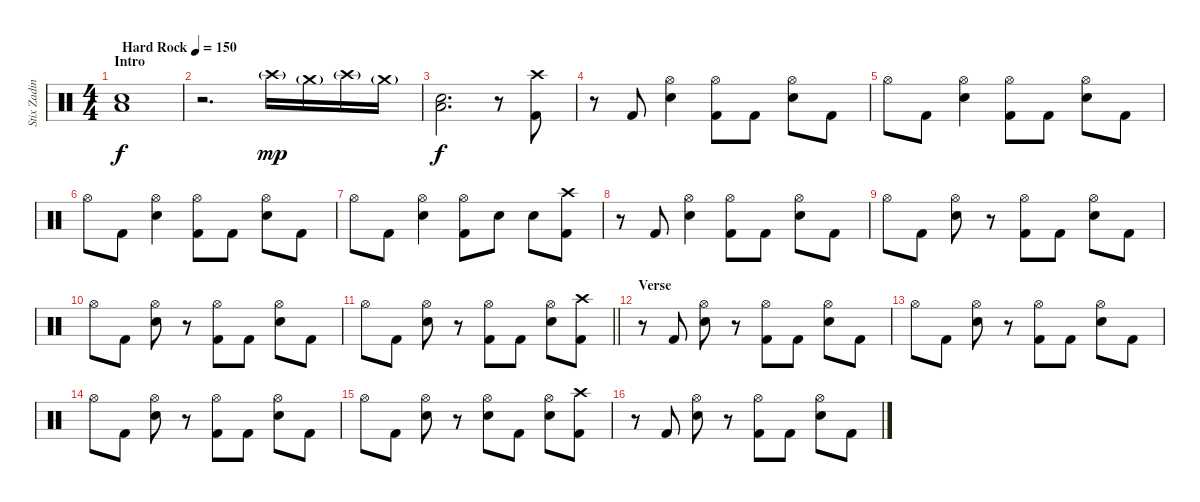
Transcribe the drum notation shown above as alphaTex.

\track ("Stix Zadinia" "Stix Zadin") {instrument percussion}
\staff {score}
\articulation defaults
\ts (4 4)
\section ("" "Intro")
\tempo (150 "Hard Rock")
\clef neutral
\ks c
("Low Floor Tom (hit)" "Electric Snare (hit)").1{dy f} |
r.2{d} "Crash high (hit)"{g}.16{dy mp} "Crash medium (hit)"{g}.16 "Crash high (hit)"{g}.16 "Crash medium (hit)"{g}.16 |
("Low Floor Tom (hit)" "Electric Snare (hit)").2{d dy f} r.8 ("Crash high (hit)" "Kick (hit) 2").8 |
r.8 "Kick (hit) 2".8 ("Hi-Hat (open)" "Electric Snare (hit)").4 ("Hi-Hat (open)" "Kick (hit) 2").8 "Kick (hit) 2".8 ("Hi-Hat (open)" "Electric Snare (hit)").8 "Kick (hit) 2".8 |
"Hi-Hat (open)".8 "Kick (hit) 2".8 ("Hi-Hat (open)" "Electric Snare (hit)").4 ("Hi-Hat (open)" "Kick (hit) 2").8 "Kick (hit) 2".8 ("Hi-Hat (open)" "Electric Snare (hit)").8 "Kick (hit) 2".8 |
"Hi-Hat (open)".8 "Kick (hit) 2".8 ("Hi-Hat (open)" "Electric Snare (hit)").4 ("Hi-Hat (open)" "Kick (hit) 2").8 "Kick (hit) 2".8 ("Hi-Hat (open)" "Electric Snare (hit)").8 "Kick (hit) 2".8 |
"Hi-Hat (open)".8 "Kick (hit) 2".8 ("Hi-Hat (open)" "Electric Snare (hit)").4 ("Hi-Hat (open)" "Kick (hit) 2").8 "Electric Snare (hit)".8 "Electric Snare (hit)".8 ("Crash high (hit)" "Kick (hit) 2").8 |
r.8 "Kick (hit) 2".8 ("Hi-Hat (open)" "Electric Snare (hit)").4 ("Hi-Hat (open)" "Kick (hit) 2").8 "Kick (hit) 2".8 ("Hi-Hat (open)" "Electric Snare (hit)").8 "Kick (hit) 2".8 |
"Hi-Hat (open)".8 "Kick (hit) 2".8 ("Hi-Hat (open)" "Electric Snare (hit)").8 r.8 ("Hi-Hat (open)" "Kick (hit) 2").8 "Kick (hit) 2".8 ("Hi-Hat (open)" "Electric Snare (hit)").8 "Kick (hit) 2".8 |
"Hi-Hat (open)".8 "Kick (hit) 2".8 ("Hi-Hat (open)" "Electric Snare (hit)").8 r.8 ("Hi-Hat (open)" "Kick (hit) 2").8 "Kick (hit) 2".8 ("Hi-Hat (open)" "Electric Snare (hit)").8 "Kick (hit) 2".8 |
\barLineRight lightlight "Hi-Hat (open)".8 "Kick (hit) 2".8
("Hi-Hat (open)" "Electric Snare (hit)").8 r.8 ("Hi-Hat (open)" "Kick (hit) 2").8 "Kick (hit) 2".8 ("Hi-Hat (open)" "Electric Snare (hit)").8 ("Crash high (hit)" "Kick (hit) 2").8 |
\section ("" "Verse")
r.8 "Kick (hit) 2".8 ("Hi-Hat (open)" "Electric Snare (hit)").8 r.8 ("Hi-Hat (open)" "Kick (hit) 2").8 "Kick (hit) 2".8 ("Hi-Hat (open)" "Electric Snare (hit)").8 "Kick (hit) 2".8 |
"Hi-Hat (open)".8 "Kick (hit) 2".8 ("Hi-Hat (open)" "Electric Snare (hit)").8 r.8 ("Hi-Hat (open)" "Kick (hit) 2").8 "Kick (hit) 2".8 ("Hi-Hat (open)" "Electric Snare (hit)").8 "Kick (hit) 2".8 |
"Hi-Hat (open)".8 "Kick (hit) 2".8 ("Hi-Hat (open)" "Electric Snare (hit)").8 r.8 ("Hi-Hat (open)" "Kick (hit) 2").8 "Kick (hit) 2".8 ("Hi-Hat (open)" "Electric Snare (hit)").8 "Kick (hit) 2".8 |
"Hi-Hat (open)".8 "Kick (hit) 2".8 ("Hi-Hat (open)" "Electric Snare (hit)").8 r.8 ("Hi-Hat (open)" "Electric Snare (hit)").8 "Kick (hit) 2".8 ("Hi-Hat (open)" "Electric Snare (hit)").8 ("Crash high (hit)" "Kick (hit) 2").8 |
r.8 "Kick (hit) 2".8 ("Hi-Hat (open)" "Electric Snare (hit)").8 r.8 ("Hi-Hat (open)" "Kick (hit) 2").8 "Kick (hit) 2".8 ("Hi-Hat (open)" "Electric Snare (hit)").8 "Kick (hit) 2".8
